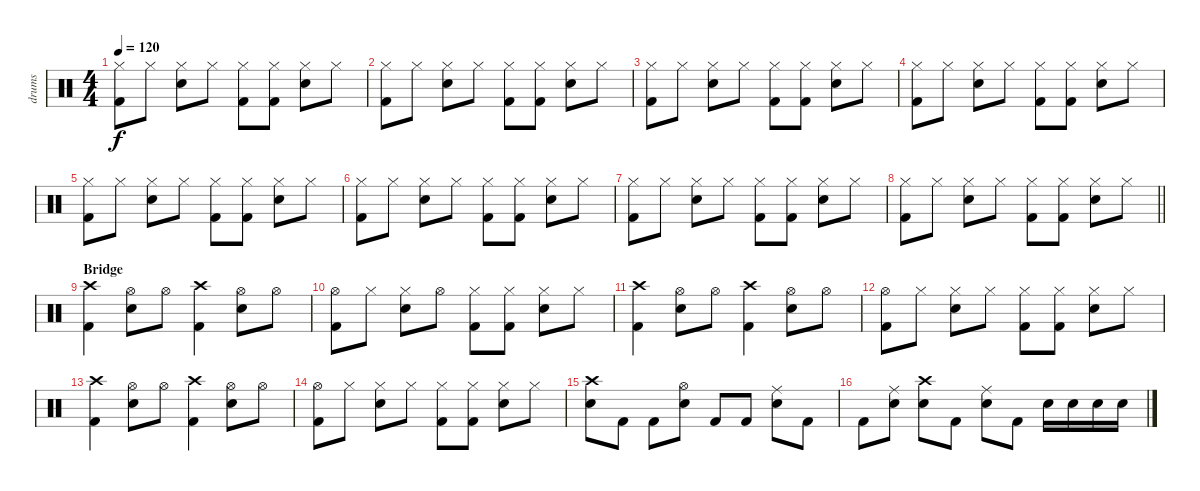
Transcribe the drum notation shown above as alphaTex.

\track ("drums" "drums") {instrument percussion}
\staff {score}
\articulation defaults
\ts (4 4)
\tempo 120
\clef neutral
\ks c
("Hi-Hat (closed)" "Kick (hit) 2").8{dy f} "Hi-Hat (closed)".8 ("Hi-Hat (closed)" "Snare (hit) 2").8 "Hi-Hat (closed)".8 ("Hi-Hat (closed)" "Kick (hit) 2").8 ("Hi-Hat (closed)" "Kick (hit) 2").8 ("Hi-Hat (closed)" "Snare (hit) 2").8 "Hi-Hat (closed)".8 |
("Hi-Hat (closed)" "Kick (hit) 2").8 "Hi-Hat (closed)".8 ("Hi-Hat (closed)" "Snare (hit) 2").8 "Hi-Hat (closed)".8 ("Hi-Hat (closed)" "Kick (hit) 2").8 ("Hi-Hat (closed)" "Kick (hit) 2").8 ("Hi-Hat (closed)" "Snare (hit) 2").8 "Hi-Hat (closed)".8 |
("Hi-Hat (closed)" "Kick (hit) 2").8 "Hi-Hat (closed)".8 ("Hi-Hat (closed)" "Snare (hit) 2").8 "Hi-Hat (closed)".8 ("Hi-Hat (closed)" "Kick (hit) 2").8 ("Hi-Hat (closed)" "Kick (hit) 2").8 ("Hi-Hat (closed)" "Snare (hit) 2").8 "Hi-Hat (closed)".8 |
("Hi-Hat (closed)" "Kick (hit) 2").8 "Hi-Hat (closed)".8 ("Hi-Hat (closed)" "Snare (hit) 2").8 "Hi-Hat (closed)".8 ("Hi-Hat (closed)" "Kick (hit) 2").8 ("Hi-Hat (closed)" "Kick (hit) 2").8 ("Hi-Hat (closed)" "Snare (hit) 2").8 "Hi-Hat (closed)".8 |
("Hi-Hat (closed)" "Kick (hit) 2").8 "Hi-Hat (closed)".8 ("Hi-Hat (closed)" "Snare (hit) 2").8 "Hi-Hat (closed)".8 ("Hi-Hat (closed)" "Kick (hit) 2").8 ("Hi-Hat (closed)" "Kick (hit) 2").8 ("Hi-Hat (closed)" "Snare (hit) 2").8 "Hi-Hat (closed)".8 |
("Hi-Hat (closed)" "Kick (hit) 2").8 "Hi-Hat (closed)".8 ("Hi-Hat (closed)" "Snare (hit) 2").8 "Hi-Hat (closed)".8 ("Hi-Hat (closed)" "Kick (hit) 2").8 ("Hi-Hat (closed)" "Kick (hit) 2").8 ("Hi-Hat (closed)" "Snare (hit) 2").8 "Hi-Hat (closed)".8 |
("Hi-Hat (closed)" "Kick (hit) 2").8 "Hi-Hat (closed)".8 ("Hi-Hat (closed)" "Snare (hit) 2").8 "Hi-Hat (closed)".8 ("Hi-Hat (closed)" "Kick (hit) 2").8 ("Hi-Hat (closed)" "Kick (hit) 2").8 ("Hi-Hat (closed)" "Snare (hit) 2").8 "Hi-Hat (closed)".8 |
\barLineRight lightlight
("Hi-Hat (closed)" "Kick (hit) 2").8 "Hi-Hat (closed)".8 ("Hi-Hat (closed)" "Snare (hit) 2").8 "Hi-Hat (closed)".8 ("Hi-Hat (closed)" "Kick (hit) 2").8 ("Hi-Hat (closed)" "Kick (hit) 2").8 ("Hi-Hat (closed)" "Snare (hit) 2").8 "Hi-Hat (closed)".8 |
\section ("" "Bridge")
("Crash high (hit)" "Kick (hit) 2").4 ("Hi-Hat (open)" "Snare (hit) 2").8 "Hi-Hat (open)".8 ("Crash high (hit)" "Kick (hit) 2").4 ("Hi-Hat (open)" "Snare (hit) 2").8 "Hi-Hat (open)".8 |
("Hi-Hat (open)" "Kick (hit) 2").8 "Hi-Hat (closed)".8 ("Hi-Hat (closed)" "Snare (hit) 2").8 "Hi-Hat (open)".8 ("Hi-Hat (closed)" "Kick (hit) 2").8 ("Hi-Hat (closed)" "Kick (hit) 2").8 ("Hi-Hat (closed)" "Snare (hit) 2").8 "Hi-Hat (closed)".8 |
("Crash high (hit)" "Kick (hit) 2").4 ("Hi-Hat (open)" "Snare (hit) 2").8 "Hi-Hat (open)".8 ("Crash high (hit)" "Kick (hit) 2").4 ("Hi-Hat (open)" "Snare (hit) 2").8 "Hi-Hat (open)".8 |
("Hi-Hat (open)" "Kick (hit) 2").8 "Hi-Hat (closed)".8 ("Hi-Hat (closed)" "Snare (hit) 2").8 "Hi-Hat (closed)".8 ("Hi-Hat (closed)" "Kick (hit) 2").8 ("Hi-Hat (closed)" "Kick (hit) 2").8 ("Hi-Hat (closed)" "Snare (hit) 2").8 "Hi-Hat (closed)".8 |
("Crash high (hit)" "Kick (hit) 2").4 ("Hi-Hat (open)" "Snare (hit) 2").8 "Hi-Hat (open)".8 ("Crash high (hit)" "Kick (hit) 2").4 ("Hi-Hat (open)" "Snare (hit) 2").8 "Hi-Hat (open)".8 |
("Hi-Hat (open)" "Kick (hit) 2").8 "Hi-Hat (closed)".8 ("Hi-Hat (closed)" "Snare (hit) 2").8 "Hi-Hat (closed)".8 ("Hi-Hat (closed)" "Kick (hit) 2").8 ("Hi-Hat (closed)" "Kick (hit) 2").8 ("Hi-Hat (closed)" "Snare (hit) 2").8 "Hi-Hat (closed)".8 |
("Crash high (hit)" "Snare (hit) 2").8 "Kick (hit) 2".8 "Kick (hit) 2".8 ("Hi-Hat (open)" "Snare (hit) 2").8 "Kick (hit) 2".8 "Kick (hit) 2".8 ("Ride (middle)" "Snare (hit) 2").8 "Kick (hit) 2".8 |
"Kick (hit) 2".8 ("Ride (middle)" "Snare (hit) 2").8 ("Crash high (hit)" "Snare (hit) 2").8 "Kick (hit) 2".8 ("Ride (middle)" "Snare (hit) 2").8 "Kick (hit) 2".8 "Snare (hit) 2".16 "Snare (hit) 2".16 "Snare (hit) 2".16 "Snare (hit) 2".16
